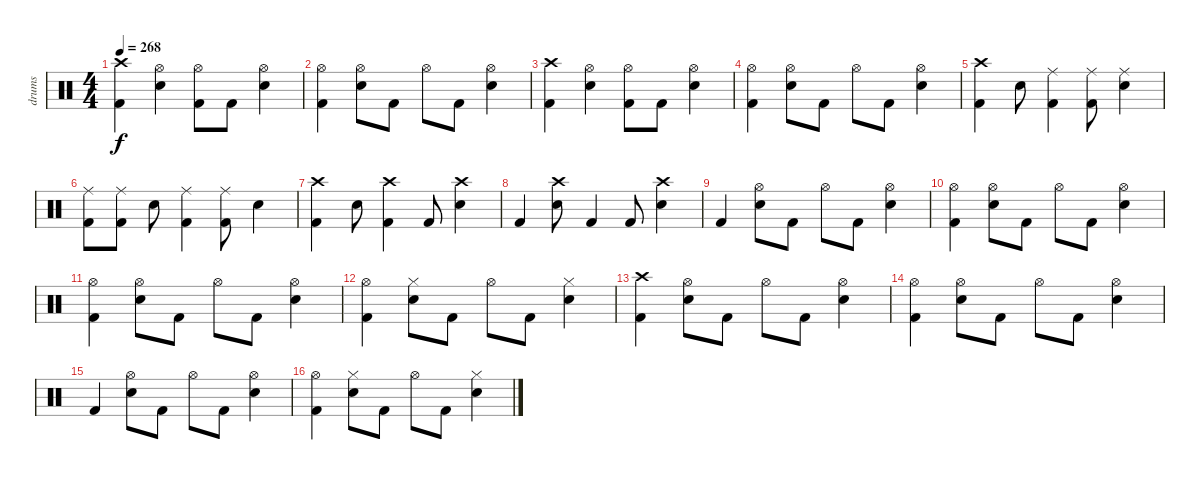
\track ("drums" "drums") {instrument percussion}
\staff {score}
\articulation defaults
\ts (4 4)
\tempo 268
\clef neutral
\ks c
("Crash high (hit)" "Kick (hit) 2").4{dy f} ("Hi-Hat (open)" "Electric Snare (hit)").4 ("Hi-Hat (open)" "Kick (hit) 2").8 "Kick (hit) 2".8 ("Hi-Hat (open)" "Electric Snare (hit)").4 |
("Hi-Hat (open)" "Kick (hit) 2").4 ("Hi-Hat (open)" "Electric Snare (hit)").8 "Kick (hit) 2".8 "Hi-Hat (open)".8 "Kick (hit) 2".8 ("Hi-Hat (open)" "Electric Snare (hit)").4 |
("Crash high (hit)" "Kick (hit) 2").4 ("Hi-Hat (open)" "Electric Snare (hit)").4 ("Hi-Hat (open)" "Kick (hit) 2").8 "Kick (hit) 2".8 ("Hi-Hat (open)" "Electric Snare (hit)").4 |
("Hi-Hat (open)" "Kick (hit) 2").4 ("Hi-Hat (open)" "Electric Snare (hit)").8 "Kick (hit) 2".8 "Hi-Hat (open)".8 "Kick (hit) 2".8 ("Hi-Hat (open)" "Electric Snare (hit)").4 |
("Crash high (hit)" "Kick (hit) 2").4 "Electric Snare (hit)".8 ("Ride (middle)" "Kick (hit) 2").4 ("Ride (middle)" "Kick (hit) 2").8 ("Ride (middle)" "Electric Snare (hit)").4 |
("Ride (middle)" "Kick (hit) 2").8 ("Ride (middle)" "Kick (hit) 2").8 "Electric Snare (hit)".8 ("Ride (middle)" "Kick (hit) 2").4 ("Ride (middle)" "Kick (hit) 2").8 "Electric Snare (hit)".4 |
("Crash high (hit)" "Kick (hit) 2").4 "Electric Snare (hit)".8 ("Crash high (hit)" "Kick (hit) 2").4 "Kick (hit) 2".8 ("Crash high (hit)" "Electric Snare (hit)").4 |
"Kick (hit) 2".4 ("Crash high (hit)" "Electric Snare (hit)").8 "Kick (hit) 2".4 "Kick (hit) 2".8 ("Crash high (hit)" "Electric Snare (hit)").4 |
"Kick (hit) 2".4 ("Hi-Hat (open)" "Electric Snare (hit)").8 "Kick (hit) 2".8 "Hi-Hat (open)".8 "Kick (hit) 2".8 ("Hi-Hat (open)" "Electric Snare (hit)").4 |
("Hi-Hat (open)" "Kick (hit) 2").4 ("Hi-Hat (open)" "Electric Snare (hit)").8 "Kick (hit) 2".8 "Hi-Hat (open)".8 "Kick (hit) 2".8 ("Hi-Hat (open)" "Electric Snare (hit)").4 |
("Hi-Hat (open)" "Kick (hit) 2").4 ("Hi-Hat (open)" "Electric Snare (hit)").8 "Kick (hit) 2".8 "Hi-Hat (open)".8 "Kick (hit) 2".8 ("Hi-Hat (open)" "Electric Snare (hit)").4 |
("Hi-Hat (open)" "Kick (hit) 2").4 ("Hi-Hat (closed)" "Electric Snare (hit)").8 "Kick (hit) 2".8 "Hi-Hat (open)".8 "Kick (hit) 2".8 ("Hi-Hat (closed)" "Electric Snare (hit)").4 |
("Crash high (hit)" "Kick (hit) 2").4 ("Hi-Hat (open)" "Electric Snare (hit)").8 "Kick (hit) 2".8 "Hi-Hat (open)".8 "Kick (hit) 2".8 ("Hi-Hat (open)" "Electric Snare (hit)").4 |
("Hi-Hat (open)" "Kick (hit) 2").4 ("Hi-Hat (open)" "Electric Snare (hit)").8 "Kick (hit) 2".8 "Hi-Hat (open)".8 "Kick (hit) 2".8 ("Hi-Hat (open)" "Electric Snare (hit)").4 |
"Kick (hit) 2".4 ("Hi-Hat (open)" "Electric Snare (hit)").8 "Kick (hit) 2".8 "Hi-Hat (open)".8 "Kick (hit) 2".8 ("Hi-Hat (open)" "Electric Snare (hit)").4 |
("Hi-Hat (open)" "Kick (hit) 2").4 ("Hi-Hat (closed)" "Electric Snare (hit)").8 "Kick (hit) 2".8 "Hi-Hat (open)".8 "Kick (hit) 2".8 ("Hi-Hat (closed)" "Electric Snare (hit)").4
